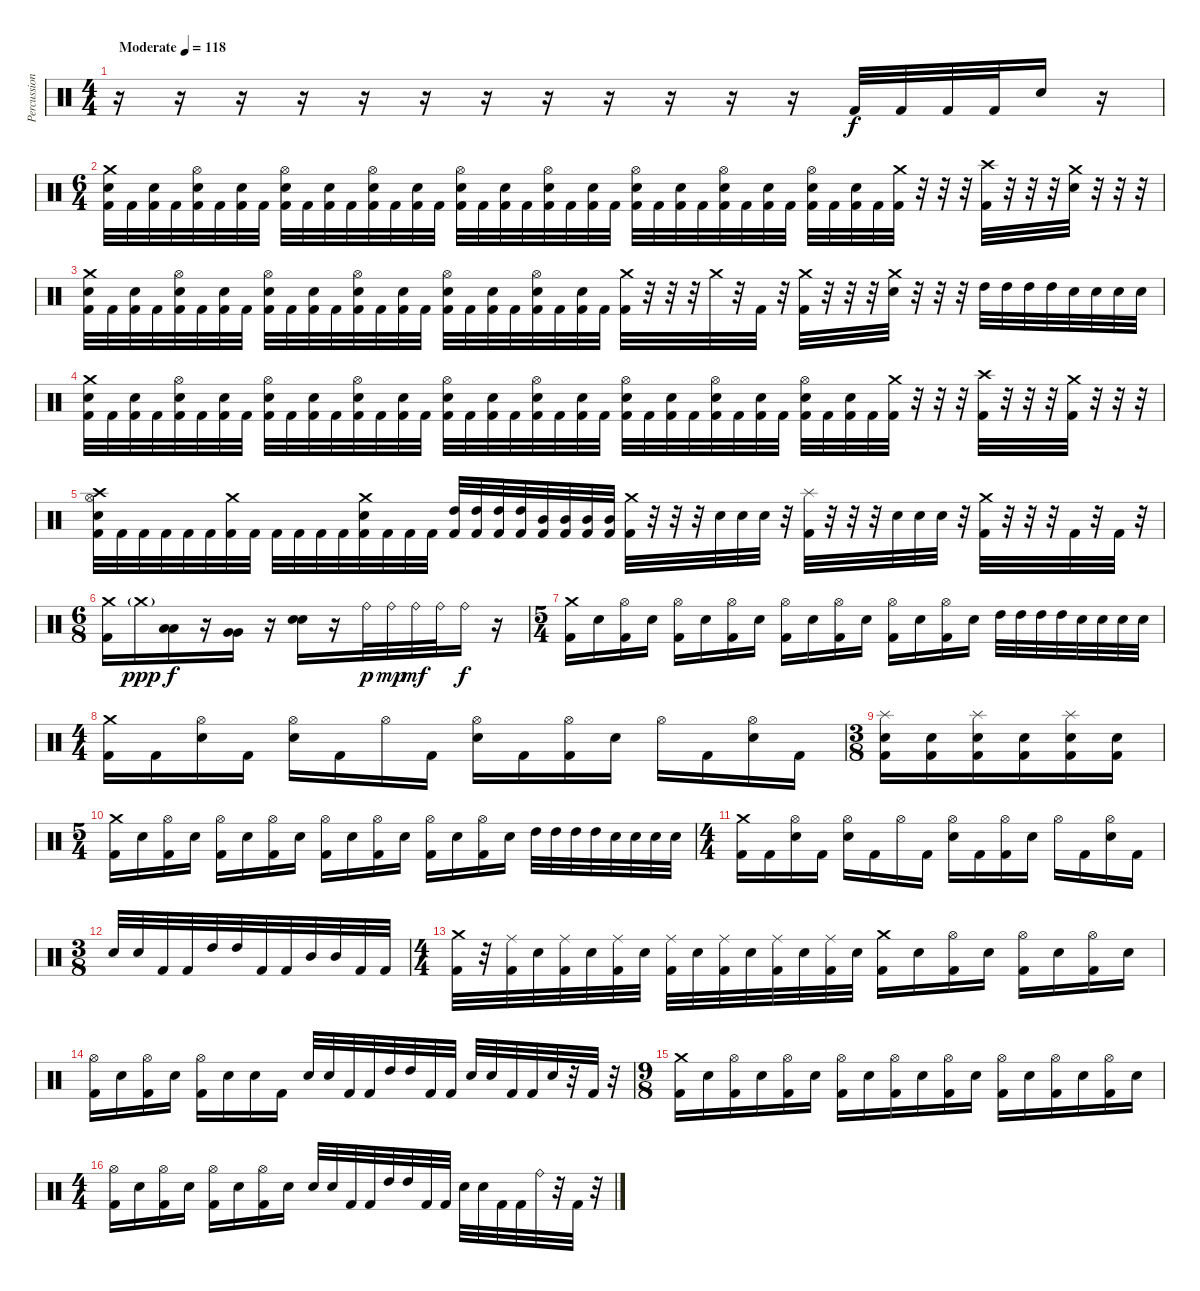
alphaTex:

\track ("Percussion" "Percussion") {instrument percussion}
\staff {score}
\articulation defaults
\ts (4 4)
\tempo (118 "Moderate")
\clef neutral
\ks c
r.16{dy f} r.16 r.16 r.16 r.16 r.16 r.16 r.16 r.16 r.16 r.16 r.16 "Kick (hit) 2".32 "Kick (hit) 2".32 "Kick (hit) 2".32 "Kick (hit) 2".32 "Electric Snare (hit)".16 r.16 |
\ts (6 4)
("Crash medium (hit)" "Electric Snare (hit)" "Kick (hit) 2").32 "Kick (hit) 2".32 ("Electric Snare (hit)" "Kick (hit) 2").32 "Kick (hit) 2".32 ("Hi-Hat (open)" "Electric Snare (hit)" "Kick (hit) 2").32 "Kick (hit) 2".32 ("Electric Snare (hit)" "Kick (hit) 2").32 "Kick (hit) 2".32 ("Hi-Hat (open)" "Electric Snare (hit)" "Kick (hit) 2").32 "Kick (hit) 2".32 ("Electric Snare (hit)" "Kick (hit) 2").32 "Kick (hit) 2".32 ("Hi-Hat (open)" "Electric Snare (hit)" "Kick (hit) 2").32 "Kick (hit) 2".32 ("Electric Snare (hit)" "Kick (hit) 2").32 "Kick (hit) 2".32 ("Hi-Hat (open)" "Electric Snare (hit)" "Kick (hit) 2").32 "Kick (hit) 2".32 ("Electric Snare (hit)" "Kick (hit) 2").32 "Kick (hit) 2".32 ("Hi-Hat (open)" "Electric Snare (hit)" "Kick (hit) 2").32 "Kick (hit) 2".32 ("Electric Snare (hit)" "Kick (hit) 2").32 "Kick (hit) 2".32 ("Hi-Hat (open)" "Electric Snare (hit)" "Kick (hit) 2").32 "Kick (hit) 2".32 ("Electric Snare (hit)" "Kick (hit) 2").32 "Kick (hit) 2".32 ("Hi-Hat (open)" "Electric Snare (hit)" "Kick (hit) 2").32 "Kick (hit) 2".32 ("Electric Snare (hit)" "Kick (hit) 2").32 "Kick (hit) 2".32 ("Hi-Hat (open)" "Electric Snare (hit)" "Kick (hit) 2").32 "Kick (hit) 2".32 ("Electric Snare (hit)" "Kick (hit) 2").32 "Kick (hit) 2".32 ("Crash medium (hit)" "Kick (hit) 2").32 r.32 r.32 r.32 ("Crash high (hit)" "Kick (hit) 2").32 r.32 r.32 r.32 ("Crash medium (hit)" "Electric Snare (hit)").32 r.32 r.32 r.32 |
("Crash medium (hit)" "Electric Snare (hit)" "Kick (hit) 2").32 "Kick (hit) 2".32 ("Electric Snare (hit)" "Kick (hit) 2").32 "Kick (hit) 2".32 ("Hi-Hat (open)" "Electric Snare (hit)" "Kick (hit) 2").32 "Kick (hit) 2".32 ("Electric Snare (hit)" "Kick (hit) 2").32 "Kick (hit) 2".32 ("Hi-Hat (open)" "Electric Snare (hit)" "Kick (hit) 2").32 "Kick (hit) 2".32 ("Electric Snare (hit)" "Kick (hit) 2").32 "Kick (hit) 2".32 ("Hi-Hat (open)" "Electric Snare (hit)" "Kick (hit) 2").32 "Kick (hit) 2".32 ("Electric Snare (hit)" "Kick (hit) 2").32 "Kick (hit) 2".32 ("Hi-Hat (open)" "Electric Snare (hit)" "Kick (hit) 2").32 "Kick (hit) 2".32 ("Electric Snare (hit)" "Kick (hit) 2").32 "Kick (hit) 2".32 ("Hi-Hat (open)" "Electric Snare (hit)" "Kick (hit) 2").32 "Kick (hit) 2".32 ("Electric Snare (hit)" "Kick (hit) 2").32 "Kick (hit) 2".32 ("Crash medium (hit)" "Kick (hit) 2").32 r.32 r.32 r.32 "Crash medium (hit)".32 r.32 "Kick (hit) 2".32 r.32 ("Crash medium (hit)" "Kick (hit) 2").32 r.32 r.32 r.32 ("Crash medium (hit)" "Electric Snare (hit)").32 r.32 r.32 r.32 "High Tom (hit)".32 "High Tom (hit)".32 "High Tom (hit)".32 "High Tom (hit)".32 "Electric Snare (hit)".32 "Electric Snare (hit)".32 "Electric Snare (hit)".32 "Electric Snare (hit)".32 |
("Crash medium (hit)" "Electric Snare (hit)" "Kick (hit) 2").32 "Kick (hit) 2".32 ("Electric Snare (hit)" "Kick (hit) 2").32 "Kick (hit) 2".32 ("Hi-Hat (open)" "Electric Snare (hit)" "Kick (hit) 2").32 "Kick (hit) 2".32 ("Electric Snare (hit)" "Kick (hit) 2").32 "Kick (hit) 2".32 ("Hi-Hat (open)" "Electric Snare (hit)" "Kick (hit) 2").32 "Kick (hit) 2".32 ("Electric Snare (hit)" "Kick (hit) 2").32 "Kick (hit) 2".32 ("Hi-Hat (open)" "Electric Snare (hit)" "Kick (hit) 2").32 "Kick (hit) 2".32 ("Electric Snare (hit)" "Kick (hit) 2").32 "Kick (hit) 2".32 ("Hi-Hat (open)" "Electric Snare (hit)" "Kick (hit) 2").32 "Kick (hit) 2".32 ("Electric Snare (hit)" "Kick (hit) 2").32 "Kick (hit) 2".32 ("Hi-Hat (open)" "Electric Snare (hit)" "Kick (hit) 2").32 "Kick (hit) 2".32 ("Electric Snare (hit)" "Kick (hit) 2").32 "Kick (hit) 2".32 ("Hi-Hat (open)" "Electric Snare (hit)" "Kick (hit) 2").32 "Kick (hit) 2".32 ("Electric Snare (hit)" "Kick (hit) 2").32 "Kick (hit) 2".32 ("Hi-Hat (open)" "Electric Snare (hit)" "Kick (hit) 2").32 "Kick (hit) 2".32 ("Electric Snare (hit)" "Kick (hit) 2").32 "Kick (hit) 2".32 ("Hi-Hat (open)" "Electric Snare (hit)" "Kick (hit) 2").32 "Kick (hit) 2".32 ("Electric Snare (hit)" "Kick (hit) 2").32 "Kick (hit) 2".32 ("Crash medium (hit)" "Kick (hit) 2").32 r.32 r.32 r.32 ("Crash high (hit)" "Kick (hit) 2").32 r.32 r.32 r.32 ("Crash medium (hit)" "Kick (hit) 2").32 r.32 r.32 r.32 |
("Crash high (hit)" "Hi-Hat (open)" "Electric Snare (hit)" "Kick (hit) 2").32 "Kick (hit) 2".32 "Kick (hit) 2".32 "Kick (hit) 2".32 "Kick (hit) 2".32 "Kick (hit) 2".32 ("Crash medium (hit)" "Kick (hit) 2").32 "Kick (hit) 2".32 "Kick (hit) 2".32 "Kick (hit) 2".32 "Kick (hit) 2".32 "Kick (hit) 2".32 ("Crash medium (hit)" "Electric Snare (hit)" "Kick (hit) 2").32 "Kick (hit) 2".32 "Kick (hit) 2".32 "Kick (hit) 2".32 ("High Tom (hit)" "Kick (hit) 2").32 ("High Tom (hit)" "Kick (hit) 2").32 ("High Tom (hit)" "Kick (hit) 2").32 ("High Tom (hit)" "Kick (hit) 2").32 ("Mid Tom (hit)" "Kick (hit) 2").32 ("Mid Tom (hit)" "Kick (hit) 2").32 ("Mid Tom (hit)" "Kick (hit) 2").32 ("Mid Tom (hit)" "Kick (hit) 2").32 ("Crash medium (hit)" "Kick (hit) 2").32 r.32 r.32 r.32 "Electric Snare (hit)".32 "Electric Snare (hit)".32 "Electric Snare (hit)".32 r.32 ("Splash (hit)" "Kick (hit) 2").32 r.32 r.32 r.32 "Electric Snare (hit)".32 "Electric Snare (hit)".32 "Electric Snare (hit)".32 r.32 ("Crash medium (hit)" "Kick (hit) 2").32 r.32 r.32 r.32 "Kick (hit) 2".32 r.32 "Kick (hit) 2".32 r.32 |
\ts (6 8)
("Crash medium (hit)" "Kick (hit) 2").16 "Crash medium (hit)"{g}.16{dy ppp} ("Low Tom (hit)" "Low Tom (hit)").16{dy f} r.16 ("Very Low Tom (hit)" "Very Low Tom (hit)").16 r.16 ("Electric Snare (hit)" "Electric Snare (hit)").16{bu 480} r.16 "Ride (bell)".32{dy p} "Ride (bell)".32{dy mp} "Ride (bell)".32{dy mf} "Ride (bell)".32 "Ride (bell)".16{dy f} r.16 |
\ts (5 4)
("Crash medium (hit)" "Kick (hit) 2").16 "Electric Snare (hit)".16 ("Hi-Hat (open)" "Kick (hit) 2").16 "Electric Snare (hit)".16 ("Hi-Hat (open)" "Kick (hit) 2").16 "Electric Snare (hit)".16 ("Hi-Hat (open)" "Kick (hit) 2").16 "Electric Snare (hit)".16 ("Hi-Hat (open)" "Kick (hit) 2").16 "Electric Snare (hit)".16 ("Hi-Hat (open)" "Kick (hit) 2").16 "Electric Snare (hit)".16 ("Hi-Hat (open)" "Kick (hit) 2").16 "Electric Snare (hit)".16 ("Hi-Hat (open)" "Kick (hit) 2").16 "Electric Snare (hit)".16 "High Tom (hit)".32 "High Tom (hit)".32 "High Tom (hit)".32 "High Tom (hit)".32 "Electric Snare (hit)".32 "Electric Snare (hit)".32 "Electric Snare (hit)".32 "Electric Snare (hit)".32 |
\ts (4 4)
("Crash medium (hit)" "Kick (hit) 2").16 "Kick (hit) 2".16 ("Hi-Hat (open)" "Electric Snare (hit)").16 "Kick (hit) 2".16 ("Hi-Hat (open)" "Electric Snare (hit)").16 "Kick (hit) 2".16 "Hi-Hat (open)".16 "Kick (hit) 2".16 ("Hi-Hat (open)" "Electric Snare (hit)").16 "Kick (hit) 2".16 ("Hi-Hat (open)" "Kick (hit) 2").16 "Electric Snare (hit)".16 "Hi-Hat (open)".16 "Kick (hit) 2".16 ("Hi-Hat (open)" "Electric Snare (hit)").16 "Kick (hit) 2".16 |
\ts (3 8)
("Splash (hit)" "Electric Snare (hit)" "Kick (hit) 2").16 ("Electric Snare (hit)" "Kick (hit) 2").16 ("Splash (hit)" "Electric Snare (hit)" "Kick (hit) 2").16 ("Electric Snare (hit)" "Kick (hit) 2").16 ("Splash (hit)" "Electric Snare (hit)" "Kick (hit) 2").16 ("Electric Snare (hit)" "Kick (hit) 2").16 |
\ts (5 4)
("Crash medium (hit)" "Kick (hit) 2").16 "Electric Snare (hit)".16 ("Hi-Hat (open)" "Kick (hit) 2").16 "Electric Snare (hit)".16 ("Hi-Hat (open)" "Kick (hit) 2").16 "Electric Snare (hit)".16 ("Hi-Hat (open)" "Kick (hit) 2").16 "Electric Snare (hit)".16 ("Hi-Hat (open)" "Kick (hit) 2").16 "Electric Snare (hit)".16 ("Hi-Hat (open)" "Kick (hit) 2").16 "Electric Snare (hit)".16 ("Hi-Hat (open)" "Kick (hit) 2").16 "Electric Snare (hit)".16 ("Hi-Hat (open)" "Kick (hit) 2").16 "Electric Snare (hit)".16 "High Tom (hit)".32 "High Tom (hit)".32 "High Tom (hit)".32 "High Tom (hit)".32 "Electric Snare (hit)".32 "Electric Snare (hit)".32 "Electric Snare (hit)".32 "Electric Snare (hit)".32 |
\ts (4 4)
("Crash medium (hit)" "Kick (hit) 2").16 "Kick (hit) 2".16 ("Hi-Hat (open)" "Electric Snare (hit)").16 "Kick (hit) 2".16 ("Hi-Hat (open)" "Electric Snare (hit)").16 "Kick (hit) 2".16 "Hi-Hat (open)".16 "Kick (hit) 2".16 ("Hi-Hat (open)" "Electric Snare (hit)").16 "Kick (hit) 2".16 ("Hi-Hat (open)" "Kick (hit) 2").16 "Electric Snare (hit)".16 "Hi-Hat (open)".16 "Kick (hit) 2".16 ("Hi-Hat (open)" "Electric Snare (hit)").16 "Kick (hit) 2".16 |
\ts (3 8)
"Electric Snare (hit)".32 "Electric Snare (hit)".32 "Kick (hit) 2".32 "Kick (hit) 2".32 "High Tom (hit)".32 "High Tom (hit)".32 "Kick (hit) 2".32 "Kick (hit) 2".32 "Mid Tom (hit)".32 "Mid Tom (hit)".32 "Kick (hit) 2".32 "Kick (hit) 2".32 |
\ts (4 4)
("Crash medium (hit)" "Kick (hit) 2").32 r.32 ("Ride (middle)" "Kick (hit) 2").32 "Electric Snare (hit)".32 ("Ride (middle)" "Kick (hit) 2").32 "Electric Snare (hit)".32 ("Ride (middle)" "Kick (hit) 2").32 "Electric Snare (hit)".32 ("Ride (middle)" "Kick (hit) 2").32 "Electric Snare (hit)".32 ("Ride (middle)" "Kick (hit) 2").32 "Electric Snare (hit)".32 ("Ride (middle)" "Kick (hit) 2").32 "Electric Snare (hit)".32 ("Ride (middle)" "Kick (hit) 2").32 "Electric Snare (hit)".32 ("Crash medium (hit)" "Kick (hit) 2").16 "Electric Snare (hit)".16 ("Hi-Hat (open)" "Kick (hit) 2").16 "Electric Snare (hit)".16 ("Hi-Hat (open)" "Kick (hit) 2").16 "Electric Snare (hit)".16 ("Hi-Hat (open)" "Kick (hit) 2").16 "Electric Snare (hit)".16 |
("Hi-Hat (open)" "Kick (hit) 2").16 "Electric Snare (hit)".16 ("Hi-Hat (open)" "Kick (hit) 2").16 "Electric Snare (hit)".16 ("Hi-Hat (open)" "Kick (hit) 2").16 "Electric Snare (hit)".16 "Electric Snare (hit)".16 "Kick (hit) 2".16 "Electric Snare (hit)".32 "Electric Snare (hit)".32 "Kick (hit) 2".32 "Kick (hit) 2".32 "High Tom (hit)".32 "High Tom (hit)".32 "Kick (hit) 2".32 "Kick (hit) 2".32 "Electric Snare (hit)".32 "Electric Snare (hit)".32 "Kick (hit) 2".32 "Kick (hit) 2".32 "Electric Snare (hit)".32 r.32 "Kick (hit) 2".32 r.32 |
\ts (9 8)
("Crash medium (hit)" "Kick (hit) 2").16 "Electric Snare (hit)".16 ("Hi-Hat (open)" "Kick (hit) 2").16 "Electric Snare (hit)".16 ("Hi-Hat (open)" "Kick (hit) 2").16 "Electric Snare (hit)".16 ("Hi-Hat (open)" "Kick (hit) 2").16 "Electric Snare (hit)".16 ("Hi-Hat (open)" "Kick (hit) 2").16 "Electric Snare (hit)".16 ("Hi-Hat (open)" "Kick (hit) 2").16 "Electric Snare (hit)".16 ("Hi-Hat (open)" "Kick (hit) 2").16 "Electric Snare (hit)".16 ("Hi-Hat (open)" "Kick (hit) 2").16 "Electric Snare (hit)".16 ("Hi-Hat (open)" "Kick (hit) 2").16 "Electric Snare (hit)".16 |
\ts (4 4)
("Hi-Hat (open)" "Kick (hit) 2").16 "Electric Snare (hit)".16 ("Hi-Hat (open)" "Kick (hit) 2").16 "Electric Snare (hit)".16 ("Hi-Hat (open)" "Kick (hit) 2").16 "Electric Snare (hit)".16 ("Hi-Hat (open)" "Kick (hit) 2").16 "Electric Snare (hit)".16 "Electric Snare (hit)".32 "Electric Snare (hit)".32 "Kick (hit) 2".32 "Kick (hit) 2".32 "High Tom (hit)".32 "High Tom (hit)".32 "Kick (hit) 2".32 "Kick (hit) 2".32 "Electric Snare (hit)".32 "Electric Snare (hit)".32 "Kick (hit) 2".32 "Kick (hit) 2".32 "Ride (bell)".32 r.32 "Kick (hit) 2".32 r.32
